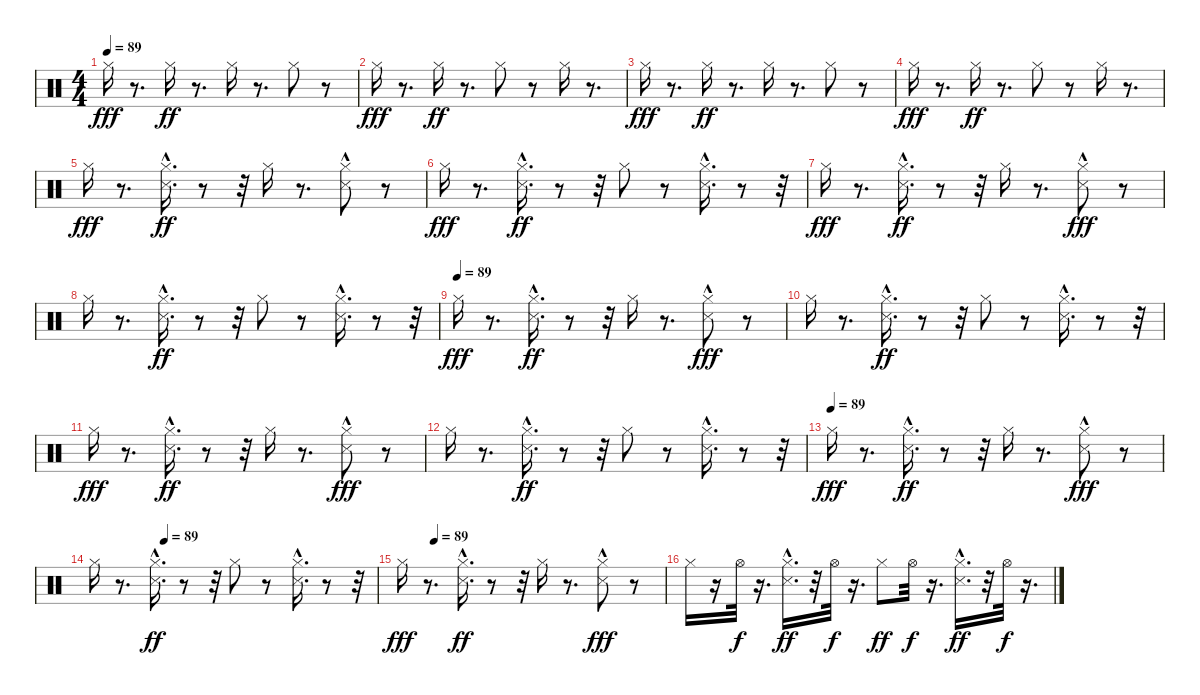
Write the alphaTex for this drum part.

\track "" {instrument percussion}
\staff {score}
\articulation defaults
\ts (4 4)
\tempo 89
\clef neutral
\ks c "Hi-Hat (closed)".16{dy fff}
r.8{d} "Hi-Hat (closed)".16{dy ff} r.8{d} "Hi-Hat (closed)".16 r.8{d} "Hi-Hat (closed)".8 r.8 |
"Hi-Hat (closed)".16{dy fff} r.8{d} "Hi-Hat (closed)".16{dy ff} r.8{d} "Hi-Hat (closed)".8 r.8 "Hi-Hat (closed)".16 r.8{d} |
"Hi-Hat (closed)".16{dy fff} r.8{d} "Hi-Hat (closed)".16{dy ff} r.8{d} "Hi-Hat (closed)".16 r.8{d} "Hi-Hat (closed)".8 r.8 |
"Hi-Hat (closed)".16{dy fff} r.8{d} "Hi-Hat (closed)".16{dy ff} r.8{d} "Hi-Hat (closed)".8 r.8 "Hi-Hat (closed)".16 r.8{d} |
"Hi-Hat (closed)".16{dy fff} r.8{d} ("Snare (side stick) 3"{hac} "Hi-Hat (closed)").16{d dy ff} r.8 r.32 "Hi-Hat (closed)".16 r.8{d} ("Snare (side stick) 3"{hac} "Hi-Hat (closed)").8 r.8 |
"Hi-Hat (closed)".16{dy fff} r.8{d} ("Snare (side stick) 3"{hac} "Hi-Hat (closed)").16{d dy ff} r.8 r.32 "Hi-Hat (closed)".8 r.8 ("Snare (side stick) 3"{hac} "Hi-Hat (closed)").16{d} r.8 r.32 |
"Hi-Hat (closed)".16{dy fff} r.8{d} ("Snare (side stick) 3"{hac} "Hi-Hat (closed)").16{d dy ff} r.8 r.32 "Hi-Hat (closed)".16 r.8{d} ("Hi-Hat (closed)" "Snare (side stick) 3"{hac}).8{dy fff} r.8 |
"Hi-Hat (closed)".16 r.8{d} ("Snare (side stick) 3"{hac} "Hi-Hat (closed)").16{d dy ff} r.8 r.32 "Hi-Hat (closed)".8 r.8 ("Snare (side stick) 3"{hac} "Hi-Hat (closed)").16{d} r.8 r.32 |
\tempo (89)
"Hi-Hat (closed)".16{dy fff} r.8{d} ("Snare (side stick) 3"{hac} "Hi-Hat (closed)").16{d dy ff} r.8 r.32 "Hi-Hat (closed)".16 r.8{d} ("Hi-Hat (closed)" "Snare (side stick) 3"{hac}).8{dy fff} r.8 |
"Hi-Hat (closed)".16 r.8{d} ("Snare (side stick) 3"{hac} "Hi-Hat (closed)").16{d dy ff} r.8 r.32 "Hi-Hat (closed)".8 r.8 ("Snare (side stick) 3"{hac} "Hi-Hat (closed)").16{d} r.8 r.32 |
"Hi-Hat (closed)".16{dy fff} r.8{d} ("Snare (side stick) 3"{hac} "Hi-Hat (closed)").16{d dy ff} r.8 r.32 "Hi-Hat (closed)".16 r.8{d} ("Hi-Hat (closed)" "Snare (side stick) 3"{hac}).8{dy fff} r.8 |
"Hi-Hat (closed)".16 r.8{d} ("Snare (side stick) 3"{hac} "Hi-Hat (closed)").16{d dy ff} r.8 r.32 "Hi-Hat (closed)".8 r.8 ("Snare (side stick) 3"{hac} "Hi-Hat (closed)").16{d} r.8 r.32 |
\tempo (89)
"Hi-Hat (closed)".16{dy fff} r.8{d} ("Snare (side stick) 3"{hac} "Hi-Hat (closed)").16{d dy ff} r.8 r.32 "Hi-Hat (closed)".16 r.8{d} ("Hi-Hat (closed)" "Snare (side stick) 3"{hac}).8{dy fff} r.8 |
\tempo (89 0.25)
"Hi-Hat (closed)".16 r.8{d} ("Snare (side stick) 3"{hac} "Hi-Hat (closed)").16{d dy ff} r.8 r.32 "Hi-Hat (closed)".8 r.8 ("Snare (side stick) 3"{hac} "Hi-Hat (closed)").16{d} r.8 r.32 |
\tempo (89 0.125)
"Hi-Hat (closed)".16{dy fff} r.8{d} ("Snare (side stick) 3"{hac} "Hi-Hat (closed)").16{d dy ff} r.8 r.32 "Hi-Hat (closed)".16 r.8{d} ("Hi-Hat (closed)" "Snare (side stick) 3"{hac}).8{dy fff} r.8 |
"Hi-Hat (closed)".16 r.16 "Hi-Hat (open)".32{dy f} r.16{d} ("Snare (side stick) 3"{hac} "Hi-Hat (closed)").16{d dy ff} r.32 "Hi-Hat (open)".32{dy f} r.16{d} "Hi-Hat (closed)".8{dy ff} "Hi-Hat (open)".32{dy f} r.16{d} ("Snare (side stick) 3"{hac} "Hi-Hat (closed)").16{d dy ff} r.32 "Hi-Hat (open)".32{dy f} r.16{d}
